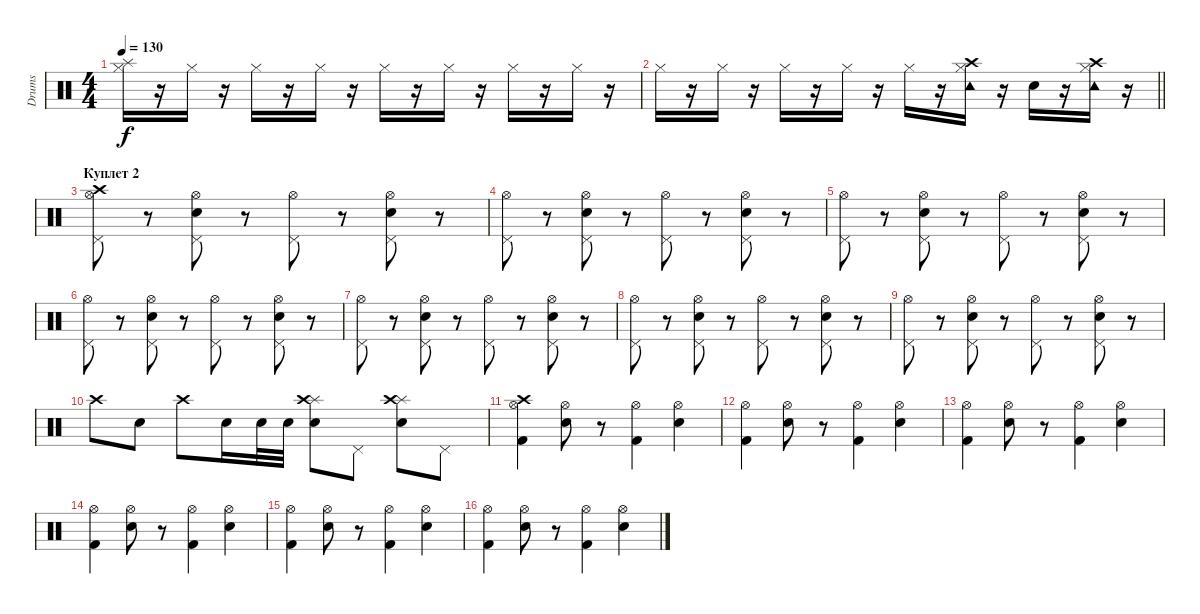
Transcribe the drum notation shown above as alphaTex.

\track ("Drums" "Drums") {instrument percussion}
\staff {score}
\articulation defaults
\ts (4 4)
\tempo 130
\clef neutral
\ks c
("Splash (hit)" "Hi-Hat (closed)").16{dy f} r.16 "Hi-Hat (closed)".16 r.16 "Hi-Hat (closed)".16 r.16 "Hi-Hat (closed)".16 r.16 "Hi-Hat (closed)".16 r.16 "Hi-Hat (closed)".16 r.16 "Hi-Hat (closed)".16 r.16 "Hi-Hat (closed)".16 r.16 |
\barLineRight lightlight "Hi-Hat (closed)".16
r.16 "Hi-Hat (closed)".16 r.16 "Hi-Hat (closed)".16 r.16 "Hi-Hat (closed)".16 r.16 "Hi-Hat (closed)".16 r.16 ("Crash high (hit)" "Tambourine (hit)" "Hi-Hat (closed)").16{volume 11} r.16 "Snare (hit) 2".16 r.16 ("Crash high (hit)" "Tambourine (hit)" "Hi-Hat (closed)").16 r.16 |
\section ("" "Куплет 2")
("Pedal Hi-Hat (hit)" "Crash high (hit)" "Hi-Hat (open)").8{volume 15} r.8 ("Pedal Hi-Hat (hit)" "Snare (hit) 2" "Hi-Hat (open)").8 r.8 ("Pedal Hi-Hat (hit)" "Hi-Hat (open)").8 r.8 ("Pedal Hi-Hat (hit)" "Snare (hit) 2" "Hi-Hat (open)").8 r.8 |
("Pedal Hi-Hat (hit)" "Hi-Hat (open)").8 r.8 ("Pedal Hi-Hat (hit)" "Snare (hit) 2" "Hi-Hat (open)").8 r.8 ("Pedal Hi-Hat (hit)" "Hi-Hat (open)").8 r.8 ("Pedal Hi-Hat (hit)" "Snare (hit) 2" "Hi-Hat (open)").8 r.8 |
("Pedal Hi-Hat (hit)" "Hi-Hat (open)").8 r.8 ("Pedal Hi-Hat (hit)" "Snare (hit) 2" "Hi-Hat (open)").8 r.8 ("Pedal Hi-Hat (hit)" "Hi-Hat (open)").8 r.8 ("Pedal Hi-Hat (hit)" "Snare (hit) 2" "Hi-Hat (open)").8 r.8 |
("Pedal Hi-Hat (hit)" "Hi-Hat (open)").8 r.8 ("Pedal Hi-Hat (hit)" "Snare (hit) 2" "Hi-Hat (open)").8 r.8 ("Pedal Hi-Hat (hit)" "Hi-Hat (open)").8 r.8 ("Pedal Hi-Hat (hit)" "Snare (hit) 2" "Hi-Hat (open)").8 r.8 |
("Pedal Hi-Hat (hit)" "Hi-Hat (open)").8 r.8 ("Pedal Hi-Hat (hit)" "Snare (hit) 2" "Hi-Hat (open)").8 r.8 ("Pedal Hi-Hat (hit)" "Hi-Hat (open)").8 r.8 ("Pedal Hi-Hat (hit)" "Snare (hit) 2" "Hi-Hat (open)").8 r.8 |
("Pedal Hi-Hat (hit)" "Hi-Hat (open)").8 r.8 ("Pedal Hi-Hat (hit)" "Snare (hit) 2" "Hi-Hat (open)").8 r.8 ("Pedal Hi-Hat (hit)" "Hi-Hat (open)").8 r.8 ("Pedal Hi-Hat (hit)" "Snare (hit) 2" "Hi-Hat (open)").8 r.8 |
("Pedal Hi-Hat (hit)" "Hi-Hat (open)").8 r.8 ("Pedal Hi-Hat (hit)" "Snare (hit) 2" "Hi-Hat (open)").8 r.8 ("Pedal Hi-Hat (hit)" "Hi-Hat (open)").8 r.8 ("Pedal Hi-Hat (hit)" "Snare (hit) 2" "Hi-Hat (open)").8 r.8 |
"Crash high (hit)".8 "Electric Snare (hit)".8 "Crash high (hit)".8 "Electric Snare (hit)".16 "Snare (hit) 2".32 "Snare (hit) 2".32 ("Splash (hit)" "Crash high (hit)" "Electric Snare (hit)").8 "Pedal Hi-Hat (hit)".8 ("Splash (hit)" "Crash high (hit)" "Snare (hit) 2").8 "Pedal Hi-Hat (hit)".8 |
("Crash high (hit)" "Kick (hit) 2" "Hi-Hat (open)").4 ("Snare (hit) 2" "Hi-Hat (open)").8 r.8 ("Kick (hit) 2" "Hi-Hat (open)").4 ("Snare (hit) 2" "Hi-Hat (open)").4 |
("Kick (hit) 2" "Hi-Hat (open)").4 ("Snare (hit) 2" "Hi-Hat (open)").8 r.8 ("Kick (hit) 2" "Hi-Hat (open)").4 ("Snare (hit) 2" "Hi-Hat (open)").4 |
("Kick (hit) 2" "Hi-Hat (open)").4 ("Snare (hit) 2" "Hi-Hat (open)").8 r.8 ("Kick (hit) 2" "Hi-Hat (open)").4 ("Snare (hit) 2" "Hi-Hat (open)").4 |
("Kick (hit) 2" "Hi-Hat (open)").4 ("Snare (hit) 2" "Hi-Hat (open)").8 r.8 ("Kick (hit) 2" "Hi-Hat (open)").4 ("Snare (hit) 2" "Hi-Hat (open)").4 |
("Kick (hit) 2" "Hi-Hat (open)").4 ("Snare (hit) 2" "Hi-Hat (open)").8 r.8 ("Kick (hit) 2" "Hi-Hat (open)").4 ("Snare (hit) 2" "Hi-Hat (open)").4 |
("Kick (hit) 2" "Hi-Hat (open)").4 ("Snare (hit) 2" "Hi-Hat (open)").8 r.8 ("Kick (hit) 2" "Hi-Hat (open)").4 ("Snare (hit) 2" "Hi-Hat (open)").4
